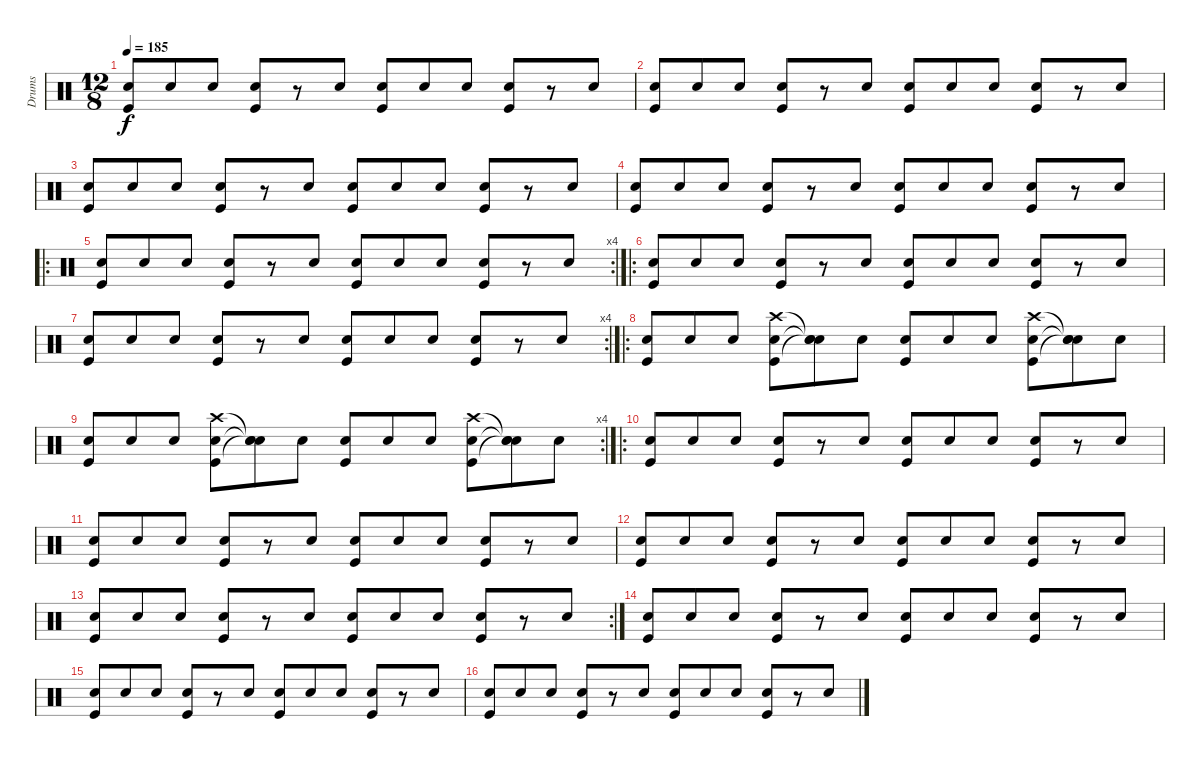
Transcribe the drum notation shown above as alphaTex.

\track ("Drums" "Drums") {instrument percussion}
\staff {score}
\articulation defaults
\ts (12 8)
\tempo 185
\clef neutral
\ks c
("Snare (hit) 2" "Kick (hit)").8{dy f} "Snare (hit) 2".8 "Snare (hit) 2".8 ("Snare (hit) 2" "Kick (hit)").8 r.8 "Snare (hit) 2".8 ("Snare (hit) 2" "Kick (hit)").8 "Snare (hit) 2".8 "Snare (hit) 2".8 ("Snare (hit) 2" "Kick (hit)").8 r.8 "Snare (hit) 2".8 |
("Snare (hit) 2" "Kick (hit)").8 "Snare (hit) 2".8 "Snare (hit) 2".8 ("Snare (hit) 2" "Kick (hit)").8 r.8 "Snare (hit) 2".8 ("Snare (hit) 2" "Kick (hit)").8 "Snare (hit) 2".8 "Snare (hit) 2".8 ("Snare (hit) 2" "Kick (hit)").8 r.8 "Snare (hit) 2".8 |
("Snare (hit) 2" "Kick (hit)").8 "Snare (hit) 2".8 "Snare (hit) 2".8 ("Snare (hit) 2" "Kick (hit)").8 r.8 "Snare (hit) 2".8 ("Snare (hit) 2" "Kick (hit)").8 "Snare (hit) 2".8 "Snare (hit) 2".8 ("Snare (hit) 2" "Kick (hit)").8 r.8 "Snare (hit) 2".8 |
("Snare (hit) 2" "Kick (hit)").8 "Snare (hit) 2".8 "Snare (hit) 2".8 ("Snare (hit) 2" "Kick (hit)").8 r.8 "Snare (hit) 2".8 ("Snare (hit) 2" "Kick (hit)").8 "Snare (hit) 2".8 "Snare (hit) 2".8 ("Snare (hit) 2" "Kick (hit)").8 r.8 "Snare (hit) 2".8 |
\ro
\rc 4
("Snare (hit) 2" "Kick (hit)").8 "Snare (hit) 2".8 "Snare (hit) 2".8 ("Snare (hit) 2" "Kick (hit)").8 r.8 "Snare (hit) 2".8 ("Snare (hit) 2" "Kick (hit)").8 "Snare (hit) 2".8 "Snare (hit) 2".8 ("Snare (hit) 2" "Kick (hit)").8 r.8 "Snare (hit) 2".8 |
\ro
("Snare (hit) 2" "Kick (hit)").8 "Snare (hit) 2".8 "Snare (hit) 2".8 ("Snare (hit) 2" "Kick (hit)").8 r.8 "Snare (hit) 2".8 ("Snare (hit) 2" "Kick (hit)").8 "Snare (hit) 2".8 "Snare (hit) 2".8 ("Snare (hit) 2" "Kick (hit)").8 r.8 "Snare (hit) 2".8 |
\rc 4
("Snare (hit) 2" "Kick (hit)").8 "Snare (hit) 2".8 "Snare (hit) 2".8 ("Snare (hit) 2" "Kick (hit)").8 r.8 "Snare (hit) 2".8 ("Snare (hit) 2" "Kick (hit)").8 "Snare (hit) 2".8 "Snare (hit) 2".8 ("Snare (hit) 2" "Kick (hit)").8 r.8 "Snare (hit) 2".8 |
\ro
("Snare (hit) 2" "Kick (hit)").8 "Snare (hit) 2".8 "Snare (hit) 2".8 ("Crash high (hit)" "Snare (hit) 2" "Kick (hit)").8 ("Snare (hit)"{t} "Snare (hit)"{t} "Snare (hit)"{t}).8 "Snare (hit) 2".8 ("Snare (hit) 2" "Kick (hit)").8 "Snare (hit) 2".8 "Snare (hit) 2".8 ("Crash high (hit)" "Snare (hit) 2" "Kick (hit)").8 ("Snare (hit)"{t} "Snare (hit)"{t} "Snare (hit)"{t}).8 "Snare (hit) 2".8 |
\rc 4
("Snare (hit) 2" "Kick (hit)").8 "Snare (hit) 2".8 "Snare (hit) 2".8 ("Crash high (hit)" "Snare (hit) 2" "Kick (hit)").8 ("Snare (hit)"{t} "Snare (hit)"{t} "Snare (hit)"{t}).8 "Snare (hit) 2".8 ("Snare (hit) 2" "Kick (hit)").8 "Snare (hit) 2".8 "Snare (hit) 2".8 ("Crash high (hit)" "Snare (hit) 2" "Kick (hit)").8 ("Snare (hit)"{t} "Snare (hit)"{t} "Snare (hit)"{t}).8 "Snare (hit) 2".8 |
\ro
("Snare (hit) 2" "Kick (hit)").8 "Snare (hit) 2".8 "Snare (hit) 2".8 ("Snare (hit) 2" "Kick (hit)").8 r.8 "Snare (hit) 2".8 ("Snare (hit) 2" "Kick (hit)").8 "Snare (hit) 2".8 "Snare (hit) 2".8 ("Snare (hit) 2" "Kick (hit)").8 r.8 "Snare (hit) 2".8 |
("Snare (hit) 2" "Kick (hit)").8 "Snare (hit) 2".8 "Snare (hit) 2".8 ("Snare (hit) 2" "Kick (hit)").8 r.8 "Snare (hit) 2".8 ("Snare (hit) 2" "Kick (hit)").8 "Snare (hit) 2".8 "Snare (hit) 2".8 ("Snare (hit) 2" "Kick (hit)").8 r.8 "Snare (hit) 2".8 |
("Snare (hit) 2" "Kick (hit)").8 "Snare (hit) 2".8 "Snare (hit) 2".8 ("Snare (hit) 2" "Kick (hit)").8 r.8 "Snare (hit) 2".8 ("Snare (hit) 2" "Kick (hit)").8 "Snare (hit) 2".8 "Snare (hit) 2".8 ("Snare (hit) 2" "Kick (hit)").8 r.8 "Snare (hit) 2".8 |
\rc 2
("Snare (hit) 2" "Kick (hit)").8 "Snare (hit) 2".8 "Snare (hit) 2".8 ("Snare (hit) 2" "Kick (hit)").8 r.8 "Snare (hit) 2".8 ("Snare (hit) 2" "Kick (hit)").8 "Snare (hit) 2".8 "Snare (hit) 2".8 ("Snare (hit) 2" "Kick (hit)").8 r.8 "Snare (hit) 2".8 |
("Snare (hit) 2" "Kick (hit)").8 "Snare (hit) 2".8 "Snare (hit) 2".8 ("Snare (hit) 2" "Kick (hit)").8 r.8 "Snare (hit) 2".8 ("Snare (hit) 2" "Kick (hit)").8 "Snare (hit) 2".8 "Snare (hit) 2".8 ("Snare (hit) 2" "Kick (hit)").8 r.8 "Snare (hit) 2".8 |
("Snare (hit) 2" "Kick (hit)").8 "Snare (hit) 2".8 "Snare (hit) 2".8 ("Snare (hit) 2" "Kick (hit)").8 r.8 "Snare (hit) 2".8 ("Snare (hit) 2" "Kick (hit)").8 "Snare (hit) 2".8 "Snare (hit) 2".8 ("Snare (hit) 2" "Kick (hit)").8 r.8 "Snare (hit) 2".8 |
("Snare (hit) 2" "Kick (hit)").8 "Snare (hit) 2".8 "Snare (hit) 2".8 ("Snare (hit) 2" "Kick (hit)").8 r.8 "Snare (hit) 2".8 ("Snare (hit) 2" "Kick (hit)").8 "Snare (hit) 2".8 "Snare (hit) 2".8 ("Snare (hit) 2" "Kick (hit)").8 r.8 "Snare (hit) 2".8
